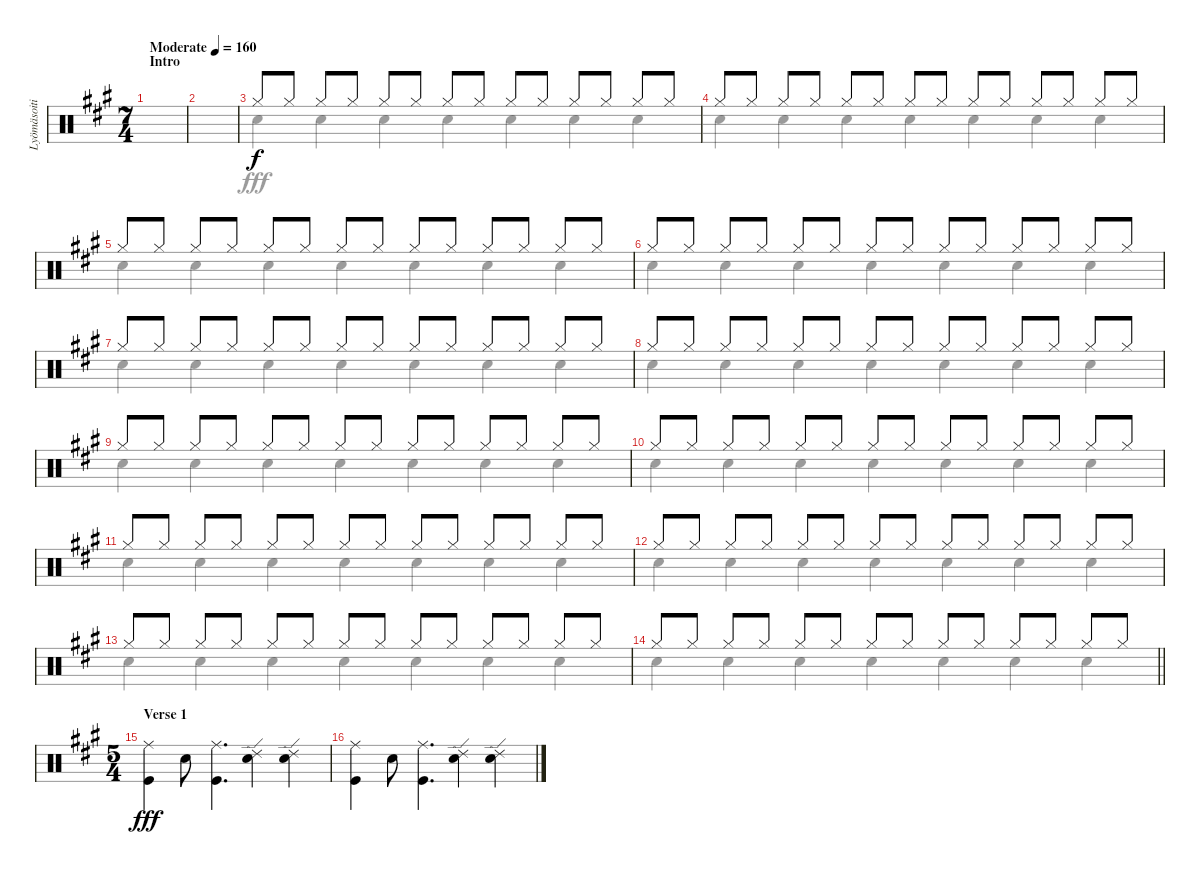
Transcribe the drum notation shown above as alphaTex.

\track ("Lyömäsoitin" "Lyömäsoiti") {instrument percussion}
\staff {score}
\articulation defaults
\voice
\ts (7 4)
\section ("" "Intro")
\tempo (160 "Moderate")
\clef neutral
\ks a
|
|
"Hi-Hat (closed)".8 "Hi-Hat (closed)".8 "Hi-Hat (closed)".8 "Hi-Hat (closed)".8 "Hi-Hat (closed)".8 "Hi-Hat (closed)".8 "Hi-Hat (closed)".8 "Hi-Hat (closed)".8 "Hi-Hat (closed)".8 "Hi-Hat (closed)".8 "Hi-Hat (closed)".8 "Hi-Hat (closed)".8 "Hi-Hat (closed)".8 "Hi-Hat (closed)".8 |
"Hi-Hat (closed)".8 "Hi-Hat (closed)".8 "Hi-Hat (closed)".8 "Hi-Hat (closed)".8 "Hi-Hat (closed)".8 "Hi-Hat (closed)".8 "Hi-Hat (closed)".8 "Hi-Hat (closed)".8 "Hi-Hat (closed)".8 "Hi-Hat (closed)".8 "Hi-Hat (closed)".8 "Hi-Hat (closed)".8 "Hi-Hat (closed)".8 "Hi-Hat (closed)".8 |
"Hi-Hat (closed)".8 "Hi-Hat (closed)".8 "Hi-Hat (closed)".8 "Hi-Hat (closed)".8 "Hi-Hat (closed)".8 "Hi-Hat (closed)".8 "Hi-Hat (closed)".8 "Hi-Hat (closed)".8 "Hi-Hat (closed)".8 "Hi-Hat (closed)".8 "Hi-Hat (closed)".8 "Hi-Hat (closed)".8 "Hi-Hat (closed)".8 "Hi-Hat (closed)".8 |
"Hi-Hat (closed)".8 "Hi-Hat (closed)".8 "Hi-Hat (closed)".8 "Hi-Hat (closed)".8 "Hi-Hat (closed)".8 "Hi-Hat (closed)".8 "Hi-Hat (closed)".8 "Hi-Hat (closed)".8 "Hi-Hat (closed)".8 "Hi-Hat (closed)".8 "Hi-Hat (closed)".8 "Hi-Hat (closed)".8 "Hi-Hat (closed)".8 "Hi-Hat (closed)".8 |
"Hi-Hat (closed)".8 "Hi-Hat (closed)".8 "Hi-Hat (closed)".8 "Hi-Hat (closed)".8 "Hi-Hat (closed)".8 "Hi-Hat (closed)".8 "Hi-Hat (closed)".8 "Hi-Hat (closed)".8 "Hi-Hat (closed)".8 "Hi-Hat (closed)".8 "Hi-Hat (closed)".8 "Hi-Hat (closed)".8 "Hi-Hat (closed)".8 "Hi-Hat (closed)".8 |
"Hi-Hat (closed)".8 "Hi-Hat (closed)".8 "Hi-Hat (closed)".8 "Hi-Hat (closed)".8 "Hi-Hat (closed)".8 "Hi-Hat (closed)".8 "Hi-Hat (closed)".8 "Hi-Hat (closed)".8 "Hi-Hat (closed)".8 "Hi-Hat (closed)".8 "Hi-Hat (closed)".8 "Hi-Hat (closed)".8 "Hi-Hat (closed)".8 "Hi-Hat (closed)".8 |
"Hi-Hat (closed)".8 "Hi-Hat (closed)".8 "Hi-Hat (closed)".8 "Hi-Hat (closed)".8 "Hi-Hat (closed)".8 "Hi-Hat (closed)".8 "Hi-Hat (closed)".8 "Hi-Hat (closed)".8 "Hi-Hat (closed)".8 "Hi-Hat (closed)".8 "Hi-Hat (closed)".8 "Hi-Hat (closed)".8 "Hi-Hat (closed)".8 "Hi-Hat (closed)".8 |
"Hi-Hat (closed)".8 "Hi-Hat (closed)".8 "Hi-Hat (closed)".8 "Hi-Hat (closed)".8 "Hi-Hat (closed)".8 "Hi-Hat (closed)".8 "Hi-Hat (closed)".8 "Hi-Hat (closed)".8 "Hi-Hat (closed)".8 "Hi-Hat (closed)".8 "Hi-Hat (closed)".8 "Hi-Hat (closed)".8 "Hi-Hat (closed)".8 "Hi-Hat (closed)".8 |
"Hi-Hat (closed)".8 "Hi-Hat (closed)".8 "Hi-Hat (closed)".8 "Hi-Hat (closed)".8 "Hi-Hat (closed)".8 "Hi-Hat (closed)".8 "Hi-Hat (closed)".8 "Hi-Hat (closed)".8 "Hi-Hat (closed)".8 "Hi-Hat (closed)".8 "Hi-Hat (closed)".8 "Hi-Hat (closed)".8 "Hi-Hat (closed)".8 "Hi-Hat (closed)".8 |
"Hi-Hat (closed)".8 "Hi-Hat (closed)".8 "Hi-Hat (closed)".8 "Hi-Hat (closed)".8 "Hi-Hat (closed)".8 "Hi-Hat (closed)".8 "Hi-Hat (closed)".8 "Hi-Hat (closed)".8 "Hi-Hat (closed)".8 "Hi-Hat (closed)".8 "Hi-Hat (closed)".8 "Hi-Hat (closed)".8 "Hi-Hat (closed)".8 "Hi-Hat (closed)".8 |
"Hi-Hat (closed)".8 "Hi-Hat (closed)".8 "Hi-Hat (closed)".8 "Hi-Hat (closed)".8 "Hi-Hat (closed)".8 "Hi-Hat (closed)".8 "Hi-Hat (closed)".8 "Hi-Hat (closed)".8 "Hi-Hat (closed)".8 "Hi-Hat (closed)".8 "Hi-Hat (closed)".8 "Hi-Hat (closed)".8 "Hi-Hat (closed)".8 "Hi-Hat (closed)".8 |
\barLineRight lightlight "Hi-Hat (closed)".8 "Hi-Hat (closed)".8 "Hi-Hat (closed)".8 "Hi-Hat (closed)".8 "Hi-Hat (closed)".8 "Hi-Hat (closed)".8 "Hi-Hat (closed)".8 "Hi-Hat (closed)".8 "Hi-Hat (closed)".8 "Hi-Hat (closed)".8 "Hi-Hat (closed)".8 "Hi-Hat (closed)".8 "Hi-Hat (closed)".8 "Hi-Hat (closed)".8
|
\ts (5 4)
\section ("" "Verse 1")
("Ride (middle)" "Kick (hit)").4{dy fff} "Snare (hit) 2".8 ("Ride (middle)" "Kick (hit)").4{d} ("Ride (edge) 2" "Snare (hit) 2").4 ("Ride (edge) 2" "Snare (hit) 2").4 |
("Ride (middle)" "Kick (hit)").4 "Snare (hit) 2".8 ("Ride (middle)" "Kick (hit)").4{d} ("Ride (edge) 2" "Snare (hit) 2").4 ("Ride (edge) 2" "Snare (hit) 2").4
\voice
\clef neutral
\ottava regular
\simile none
\ks a
|
|
"Snare (hit) 2".4 "Snare (hit) 2".4 "Snare (hit) 2".4 "Snare (hit) 2".4 "Snare (hit) 2".4 "Snare (hit) 2".4 "Snare (hit) 2".4 |
"Snare (hit) 2".4 "Snare (hit) 2".4 "Snare (hit) 2".4 "Snare (hit) 2".4 "Snare (hit) 2".4 "Snare (hit) 2".4 "Snare (hit) 2".4 |
"Snare (hit) 2".4 "Snare (hit) 2".4 "Snare (hit) 2".4 "Snare (hit) 2".4 "Snare (hit) 2".4 "Snare (hit) 2".4 "Snare (hit) 2".4 |
"Snare (hit) 2".4 "Snare (hit) 2".4 "Snare (hit) 2".4 "Snare (hit) 2".4 "Snare (hit) 2".4 "Snare (hit) 2".4 "Snare (hit) 2".4 |
"Snare (hit) 2".4 "Snare (hit) 2".4 "Snare (hit) 2".4 "Snare (hit) 2".4 "Snare (hit) 2".4 "Snare (hit) 2".4 "Snare (hit) 2".4 |
"Snare (hit) 2".4 "Snare (hit) 2".4 "Snare (hit) 2".4 "Snare (hit) 2".4 "Snare (hit) 2".4 "Snare (hit) 2".4 "Snare (hit) 2".4 |
"Snare (hit) 2".4 "Snare (hit) 2".4 "Snare (hit) 2".4 "Snare (hit) 2".4 "Snare (hit) 2".4 "Snare (hit) 2".4 "Snare (hit) 2".4 |
"Snare (hit) 2".4 "Snare (hit) 2".4 "Snare (hit) 2".4 "Snare (hit) 2".4 "Snare (hit) 2".4 "Snare (hit) 2".4 "Snare (hit) 2".4 |
"Snare (hit) 2".4 "Snare (hit) 2".4 "Snare (hit) 2".4 "Snare (hit) 2".4 "Snare (hit) 2".4 "Snare (hit) 2".4 "Snare (hit) 2".4 |
"Snare (hit) 2".4 "Snare (hit) 2".4 "Snare (hit) 2".4 "Snare (hit) 2".4 "Snare (hit) 2".4 "Snare (hit) 2".4 "Snare (hit) 2".4 |
"Snare (hit) 2".4 "Snare (hit) 2".4 "Snare (hit) 2".4 "Snare (hit) 2".4 "Snare (hit) 2".4 "Snare (hit) 2".4 "Snare (hit) 2".4 |
\barLineRight lightlight "Snare (hit) 2".4 "Snare (hit) 2".4 "Snare (hit) 2".4 "Snare (hit) 2".4 "Snare (hit) 2".4 "Snare (hit) 2".4 "Snare (hit) 2".4
|
|
